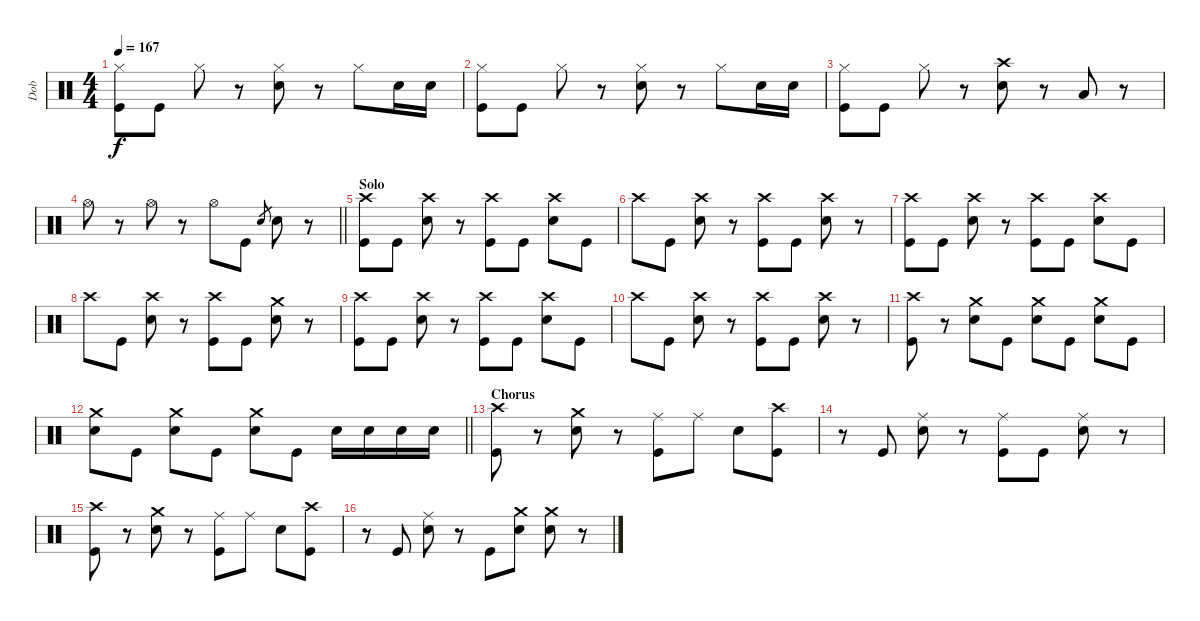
\track ("Dob" "Dob") {instrument percussion}
\staff {score}
\articulation defaults
\ts (4 4)
\tempo 167
\clef neutral
\ks c
("Hi-Hat (closed)" "Kick (hit)").8{dy f} "Kick (hit)".8 "Hi-Hat (closed)".8 r.8 ("Hi-Hat (closed)" "Snare (hit) 2").8 r.8 "Hi-Hat (closed)".8 "Snare (hit) 2".16 "Snare (hit) 2".16 |
("Hi-Hat (closed)" "Kick (hit)").8 "Kick (hit)".8 "Hi-Hat (closed)".8 r.8 ("Hi-Hat (closed)" "Snare (hit) 2").8 r.8 "Hi-Hat (closed)".8 "Snare (hit) 2".16 "Snare (hit) 2".16 |
("Hi-Hat (closed)" "Kick (hit)").8 "Kick (hit)".8 "Hi-Hat (closed)".8 r.8 ("Crash high (hit)" "Snare (hit) 2").8 r.8 "Low Floor Tom (hit)".8 r.8 |
\barLineRight lightlight "Hi-Hat (open)".8
r.8 "Hi-Hat (open)".8 r.8 "Hi-Hat (open)".8 "Kick (hit)".8 "Snare (hit) 2".8{gr} "Snare (hit) 2".8 r.8 |
\section ("" "Solo")
("Crash high (hit)" "Kick (hit)").8 "Kick (hit)".8 ("Crash high (hit)" "Snare (hit) 2").8 r.8 ("Crash high (hit)" "Kick (hit)").8 "Kick (hit)".8 ("Crash high (hit)" "Snare (hit) 2").8 "Kick (hit)".8 |
"Crash high (hit)".8 "Kick (hit)".8 ("Crash high (hit)" "Snare (hit) 2").8 r.8 ("Crash high (hit)" "Kick (hit)").8 "Kick (hit)".8 ("Crash high (hit)" "Snare (hit) 2").8 r.8 |
("Crash high (hit)" "Kick (hit)").8 "Kick (hit)".8 ("Crash high (hit)" "Snare (hit) 2").8 r.8 ("Crash high (hit)" "Kick (hit)").8 "Kick (hit)".8 ("Crash high (hit)" "Snare (hit) 2").8 "Kick (hit)".8 |
"Crash high (hit)".8 "Kick (hit)".8 ("Crash high (hit)" "Snare (hit) 2").8 r.8 ("Crash high (hit)" "Kick (hit)").8 "Kick (hit)".8 ("Crash medium (hit)" "Snare (hit) 2").8 r.8 |
("Crash high (hit)" "Kick (hit)").8 "Kick (hit)".8 ("Crash high (hit)" "Snare (hit) 2").8 r.8 ("Crash high (hit)" "Kick (hit)").8 "Kick (hit)".8 ("Crash high (hit)" "Snare (hit) 2").8 "Kick (hit)".8 |
"Crash high (hit)".8 "Kick (hit)".8 ("Crash high (hit)" "Snare (hit) 2").8 r.8 ("Crash high (hit)" "Kick (hit)").8 "Kick (hit)".8 ("Crash high (hit)" "Snare (hit) 2").8 r.8 |
("Crash high (hit)" "Kick (hit)").8 r.8 ("Crash medium (hit)" "Snare (hit) 2").8 "Kick (hit)".8 ("Crash medium (hit)" "Snare (hit) 2").8 "Kick (hit)".8 ("Crash medium (hit)" "Snare (hit) 2").8 "Kick (hit)".8 |
\barLineRight lightlight
("Crash medium (hit)" "Snare (hit) 2").8 "Kick (hit)".8 ("Crash medium (hit)" "Snare (hit) 2").8 "Kick (hit)".8 ("Crash medium (hit)" "Snare (hit) 2").8 "Kick (hit)".8 "Snare (hit) 2".16 "Snare (hit) 2".16 "Snare (hit) 2".16 "Snare (hit) 2".16 |
\section ("" "Chorus")
("Crash high (hit)" "Kick (hit)").8 r.8 ("Crash medium (hit)" "Snare (hit) 2").8 r.8 ("Ride (middle)" "Kick (hit)").8 "Ride (middle)".8 "Snare (hit) 2".8 ("Crash high (hit)" "Kick (hit)").8 |
r.8 "Kick (hit)".8 ("Ride (middle)" "Snare (hit) 2").8 r.8 ("Ride (middle)" "Kick (hit)").8 "Kick (hit)".8 ("Ride (middle)" "Snare (hit) 2").8 r.8 |
("Crash high (hit)" "Kick (hit)").8 r.8 ("Crash medium (hit)" "Snare (hit) 2").8 r.8 ("Ride (middle)" "Kick (hit)").8 "Ride (middle)".8 "Snare (hit) 2".8 ("Crash high (hit)" "Kick (hit)").8 |
r.8 "Kick (hit)".8 ("Ride (middle)" "Snare (hit) 2").8 r.8 "Kick (hit)".8 ("Crash medium (hit)" "Snare (hit) 2").8 ("Crash medium (hit)" "Snare (hit) 2").8 r.8
